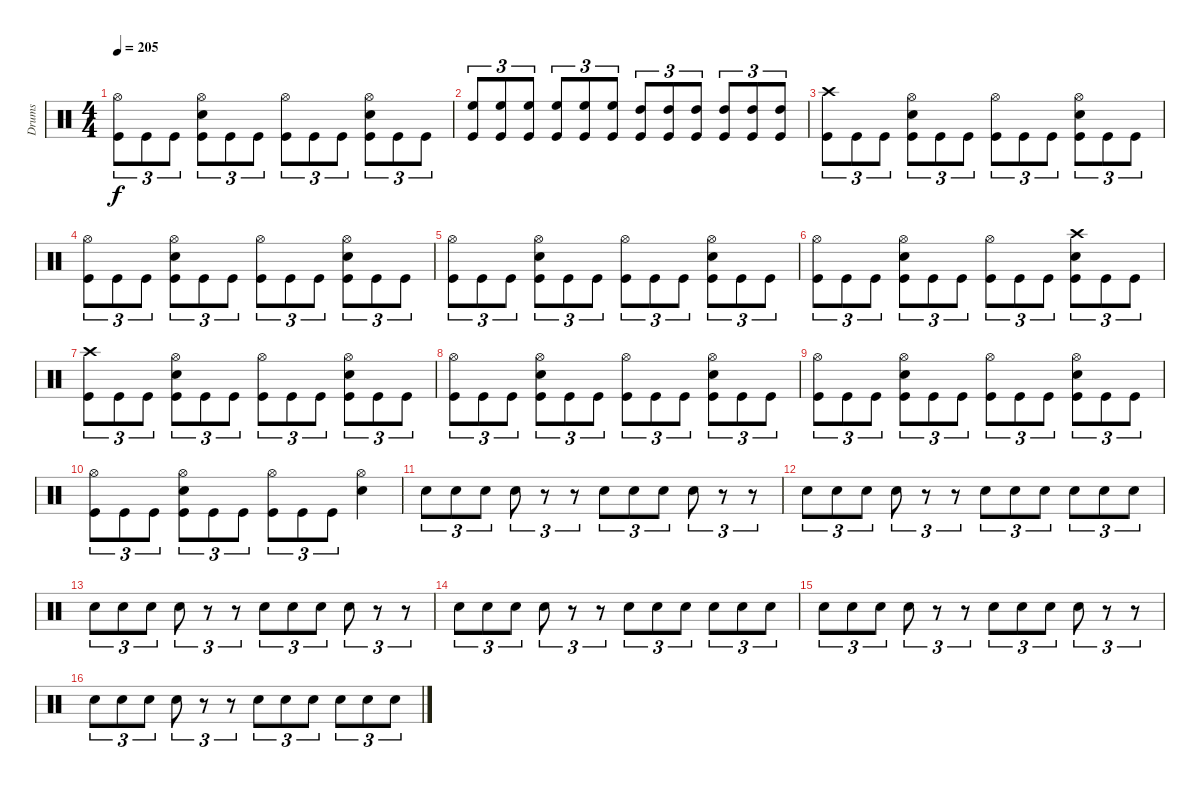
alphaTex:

\track ("Drums" "Drums") {instrument percussion}
\staff {score}
\articulation defaults
\ts (4 4)
\tempo 205
\clef neutral
\ks c
("Hi-Hat (open)" "Kick (hit)").8{tu (3 2) dy f} "Kick (hit)".8{tu (3 2)} "Kick (hit)".8{tu (3 2)} ("Hi-Hat (open)" "Snare (hit) 2" "Kick (hit)").8{tu (3 2)} "Kick (hit)".8{tu (3 2)} "Kick (hit)".8{tu (3 2)} ("Hi-Hat (open)" "Kick (hit)").8{tu (3 2)} "Kick (hit)".8{tu (3 2)} "Kick (hit)".8{tu (3 2)} ("Hi-Hat (open)" "Snare (hit) 2" "Kick (hit)").8{tu (3 2)} "Kick (hit)".8{tu (3 2)} "Kick (hit)".8{tu (3 2)} |
("High Floor Tom (hit)" "Kick (hit)").8{tu (3 2)} ("High Floor Tom (hit)" "Kick (hit)").8{tu (3 2)} ("High Floor Tom (hit)" "Kick (hit)").8{tu (3 2)} ("High Floor Tom (hit)" "Kick (hit)").8{tu (3 2)} ("High Floor Tom (hit)" "Kick (hit)").8{tu (3 2)} ("High Floor Tom (hit)" "Kick (hit)").8{tu (3 2)} ("High Tom (hit)" "Kick (hit)").8{tu (3 2)} ("High Tom (hit)" "Kick (hit)").8{tu (3 2)} ("High Tom (hit)" "Kick (hit)").8{tu (3 2)} ("High Tom (hit)" "Kick (hit)").8{tu (3 2)} ("High Tom (hit)" "Kick (hit)").8{tu (3 2)} ("High Tom (hit)" "Kick (hit)").8{tu (3 2)} |
("Crash high (hit)" "Kick (hit)").8{tu (3 2)} "Kick (hit)".8{tu (3 2)} "Kick (hit)".8{tu (3 2)} ("Hi-Hat (open)" "Snare (hit) 2" "Kick (hit)").8{tu (3 2)} "Kick (hit)".8{tu (3 2)} "Kick (hit)".8{tu (3 2)} ("Hi-Hat (open)" "Kick (hit)").8{tu (3 2)} "Kick (hit)".8{tu (3 2)} "Kick (hit)".8{tu (3 2)} ("Hi-Hat (open)" "Snare (hit) 2" "Kick (hit)").8{tu (3 2)} "Kick (hit)".8{tu (3 2)} "Kick (hit)".8{tu (3 2)} |
("Hi-Hat (open)" "Kick (hit)").8{tu (3 2)} "Kick (hit)".8{tu (3 2)} "Kick (hit)".8{tu (3 2)} ("Hi-Hat (open)" "Snare (hit) 2" "Kick (hit)").8{tu (3 2)} "Kick (hit)".8{tu (3 2)} "Kick (hit)".8{tu (3 2)} ("Hi-Hat (open)" "Kick (hit)").8{tu (3 2)} "Kick (hit)".8{tu (3 2)} "Kick (hit)".8{tu (3 2)} ("Hi-Hat (open)" "Snare (hit) 2" "Kick (hit)").8{tu (3 2)} "Kick (hit)".8{tu (3 2)} "Kick (hit)".8{tu (3 2)} |
("Hi-Hat (open)" "Kick (hit)").8{tu (3 2)} "Kick (hit)".8{tu (3 2)} "Kick (hit)".8{tu (3 2)} ("Hi-Hat (open)" "Snare (hit) 2" "Kick (hit)").8{tu (3 2)} "Kick (hit)".8{tu (3 2)} "Kick (hit)".8{tu (3 2)} ("Hi-Hat (open)" "Kick (hit)").8{tu (3 2)} "Kick (hit)".8{tu (3 2)} "Kick (hit)".8{tu (3 2)} ("Hi-Hat (open)" "Snare (hit) 2" "Kick (hit)").8{tu (3 2)} "Kick (hit)".8{tu (3 2)} "Kick (hit)".8{tu (3 2)} |
("Hi-Hat (open)" "Kick (hit)").8{tu (3 2)} "Kick (hit)".8{tu (3 2)} "Kick (hit)".8{tu (3 2)} ("Hi-Hat (open)" "Snare (hit) 2" "Kick (hit)").8{tu (3 2)} "Kick (hit)".8{tu (3 2)} "Kick (hit)".8{tu (3 2)} ("Hi-Hat (open)" "Kick (hit)").8{tu (3 2)} "Kick (hit)".8{tu (3 2)} "Kick (hit)".8{tu (3 2)} ("Crash high (hit)" "Snare (hit) 2" "Kick (hit)").8{tu (3 2)} "Kick (hit)".8{tu (3 2)} "Kick (hit)".8{tu (3 2)} |
("Crash high (hit)" "Kick (hit)").8{tu (3 2)} "Kick (hit)".8{tu (3 2)} "Kick (hit)".8{tu (3 2)} ("Hi-Hat (open)" "Snare (hit) 2" "Kick (hit)").8{tu (3 2)} "Kick (hit)".8{tu (3 2)} "Kick (hit)".8{tu (3 2)} ("Hi-Hat (open)" "Kick (hit)").8{tu (3 2)} "Kick (hit)".8{tu (3 2)} "Kick (hit)".8{tu (3 2)} ("Hi-Hat (open)" "Snare (hit) 2" "Kick (hit)").8{tu (3 2)} "Kick (hit)".8{tu (3 2)} "Kick (hit)".8{tu (3 2)} |
("Hi-Hat (open)" "Kick (hit)").8{tu (3 2)} "Kick (hit)".8{tu (3 2)} "Kick (hit)".8{tu (3 2)} ("Hi-Hat (open)" "Snare (hit) 2" "Kick (hit)").8{tu (3 2)} "Kick (hit)".8{tu (3 2)} "Kick (hit)".8{tu (3 2)} ("Hi-Hat (open)" "Kick (hit)").8{tu (3 2)} "Kick (hit)".8{tu (3 2)} "Kick (hit)".8{tu (3 2)} ("Hi-Hat (open)" "Snare (hit) 2" "Kick (hit)").8{tu (3 2)} "Kick (hit)".8{tu (3 2)} "Kick (hit)".8{tu (3 2)} |
("Hi-Hat (open)" "Kick (hit)").8{tu (3 2)} "Kick (hit)".8{tu (3 2)} "Kick (hit)".8{tu (3 2)} ("Hi-Hat (open)" "Snare (hit) 2" "Kick (hit)").8{tu (3 2)} "Kick (hit)".8{tu (3 2)} "Kick (hit)".8{tu (3 2)} ("Hi-Hat (open)" "Kick (hit)").8{tu (3 2)} "Kick (hit)".8{tu (3 2)} "Kick (hit)".8{tu (3 2)} ("Hi-Hat (open)" "Snare (hit) 2" "Kick (hit)").8{tu (3 2)} "Kick (hit)".8{tu (3 2)} "Kick (hit)".8{tu (3 2)} |
("Hi-Hat (open)" "Kick (hit)").8{tu (3 2)} "Kick (hit)".8{tu (3 2)} "Kick (hit)".8{tu (3 2)} ("Hi-Hat (open)" "Snare (hit) 2" "Kick (hit)").8{tu (3 2)} "Kick (hit)".8{tu (3 2)} "Kick (hit)".8{tu (3 2)} ("Hi-Hat (open)" "Kick (hit)").8{tu (3 2)} "Kick (hit)".8{tu (3 2)} "Kick (hit)".8{tu (3 2)} ("Hi-Hat (open)" "Snare (hit) 2").4 |
"Snare (hit) 2".8{tu (3 2)} "Snare (hit) 2".8{tu (3 2)} "Snare (hit) 2".8{tu (3 2)} "Snare (hit) 2".8{tu (3 2)} r.8{tu (3 2)} r.8{tu (3 2)} "Snare (hit) 2".8{tu (3 2)} "Snare (hit) 2".8{tu (3 2)} "Snare (hit) 2".8{tu (3 2)} "Snare (hit) 2".8{tu (3 2)} r.8{tu (3 2)} r.8{tu (3 2)} |
"Snare (hit) 2".8{tu (3 2)} "Snare (hit) 2".8{tu (3 2)} "Snare (hit) 2".8{tu (3 2)} "Snare (hit) 2".8{tu (3 2)} r.8{tu (3 2)} r.8{tu (3 2)} "Snare (hit) 2".8{tu (3 2)} "Snare (hit) 2".8{tu (3 2)} "Snare (hit) 2".8{tu (3 2)} "Snare (hit) 2".8{tu (3 2)} "Snare (hit) 2".8{tu (3 2)} "Snare (hit) 2".8{tu (3 2)} |
"Snare (hit) 2".8{tu (3 2)} "Snare (hit) 2".8{tu (3 2)} "Snare (hit) 2".8{tu (3 2)} "Snare (hit) 2".8{tu (3 2)} r.8{tu (3 2)} r.8{tu (3 2)} "Snare (hit) 2".8{tu (3 2)} "Snare (hit) 2".8{tu (3 2)} "Snare (hit) 2".8{tu (3 2)} "Snare (hit) 2".8{tu (3 2)} r.8{tu (3 2)} r.8{tu (3 2)} |
"Snare (hit) 2".8{tu (3 2)} "Snare (hit) 2".8{tu (3 2)} "Snare (hit) 2".8{tu (3 2)} "Snare (hit) 2".8{tu (3 2)} r.8{tu (3 2)} r.8{tu (3 2)} "Snare (hit) 2".8{tu (3 2)} "Snare (hit) 2".8{tu (3 2)} "Snare (hit) 2".8{tu (3 2)} "Snare (hit) 2".8{tu (3 2)} "Snare (hit) 2".8{tu (3 2)} "Snare (hit) 2".8{tu (3 2)} |
"Snare (hit) 2".8{tu (3 2)} "Snare (hit) 2".8{tu (3 2)} "Snare (hit) 2".8{tu (3 2)} "Snare (hit) 2".8{tu (3 2)} r.8{tu (3 2)} r.8{tu (3 2)} "Snare (hit) 2".8{tu (3 2)} "Snare (hit) 2".8{tu (3 2)} "Snare (hit) 2".8{tu (3 2)} "Snare (hit) 2".8{tu (3 2)} r.8{tu (3 2)} r.8{tu (3 2)} |
"Snare (hit) 2".8{tu (3 2)} "Snare (hit) 2".8{tu (3 2)} "Snare (hit) 2".8{tu (3 2)} "Snare (hit) 2".8{tu (3 2)} r.8{tu (3 2)} r.8{tu (3 2)} "Snare (hit) 2".8{tu (3 2)} "Snare (hit) 2".8{tu (3 2)} "Snare (hit) 2".8{tu (3 2)} "Snare (hit) 2".8{tu (3 2)} "Snare (hit) 2".8{tu (3 2)} "Snare (hit) 2".8{tu (3 2)}
